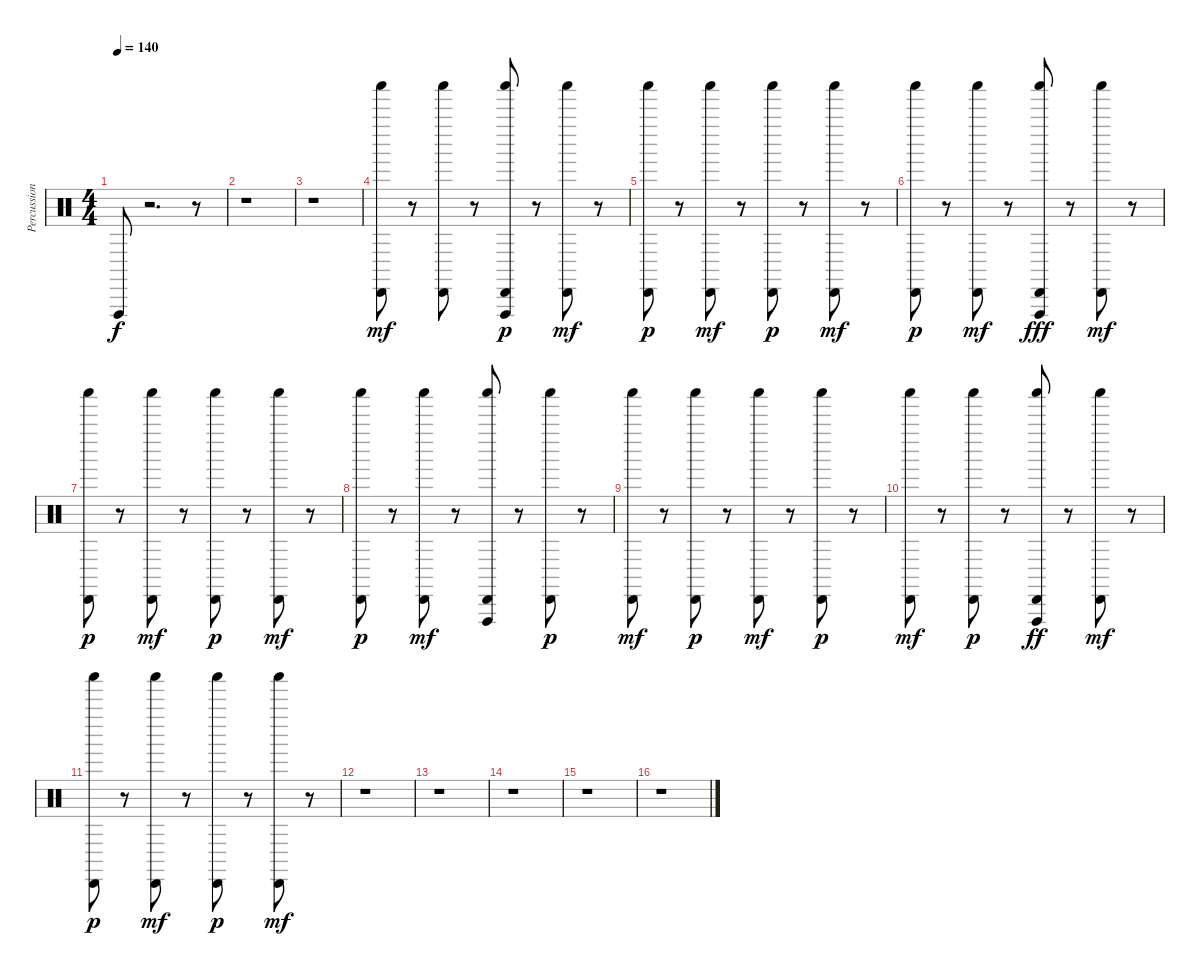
\track ("Percussion Std Drums" "Percussion") {instrument percussion}
\staff {score}
\articulation defaults
\ts (4 4)
\tempo 140
\clef neutral
\ks c "Vibraslap (hit)".8{dy f}
r.2{d} r.8 |
r.1 |
r.1 |
("Shaker (hit)" "Cabasa (hit)").8{dy mf} r.8 ("Shaker (hit)" "Cabasa (hit)").8 r.8 ("Vibraslap (hit)" "Cabasa (hit)" "Shaker (hit)").8{dy p} r.8 ("Shaker (hit)" "Cabasa (hit)").8{dy mf} r.8 |
("Cabasa (hit)" "Shaker (hit)").8{dy p} r.8 ("Shaker (hit)" "Cabasa (hit)").8{dy mf} r.8 ("Cabasa (hit)" "Shaker (hit)").8{dy p} r.8 ("Shaker (hit)" "Cabasa (hit)").8{dy mf} r.8 |
("Cabasa (hit)" "Shaker (hit)").8{dy p} r.8 ("Shaker (hit)" "Cabasa (hit)").8{dy mf} r.8 ("Cabasa (hit)" "Shaker (hit)" "Vibraslap (hit)").8{dy fff} r.8 ("Shaker (hit)" "Cabasa (hit)").8{dy mf} r.8 |
("Cabasa (hit)" "Shaker (hit)").8{dy p} r.8 ("Shaker (hit)" "Cabasa (hit)").8{dy mf} r.8 ("Cabasa (hit)" "Shaker (hit)").8{dy p} r.8 ("Shaker (hit)" "Cabasa (hit)").8{dy mf} r.8 |
("Cabasa (hit)" "Shaker (hit)").8{dy p} r.8 ("Shaker (hit)" "Cabasa (hit)").8{dy mf} r.8 ("Shaker (hit)" "Vibraslap (hit)" "Cabasa (hit)").8 r.8 ("Cabasa (hit)" "Shaker (hit)").8{dy p} r.8 |
("Shaker (hit)" "Cabasa (hit)").8{dy mf} r.8 ("Cabasa (hit)" "Shaker (hit)").8{dy p} r.8 ("Shaker (hit)" "Cabasa (hit)").8{dy mf} r.8 ("Cabasa (hit)" "Shaker (hit)").8{dy p} r.8 |
("Shaker (hit)" "Cabasa (hit)").8{dy mf} r.8 ("Cabasa (hit)" "Shaker (hit)").8{dy p} r.8 ("Shaker (hit)" "Cabasa (hit)" "Vibraslap (hit)").8{dy ff} r.8 ("Shaker (hit)" "Cabasa (hit)").8{dy mf} r.8 |
("Cabasa (hit)" "Shaker (hit)").8{dy p} r.8 ("Shaker (hit)" "Cabasa (hit)").8{dy mf} r.8 ("Cabasa (hit)" "Shaker (hit)").8{dy p} r.8 ("Shaker (hit)" "Cabasa (hit)").8{dy mf} r.8 |
r.1 |
r.1 |
r.1 |
r.1 |
r.1
